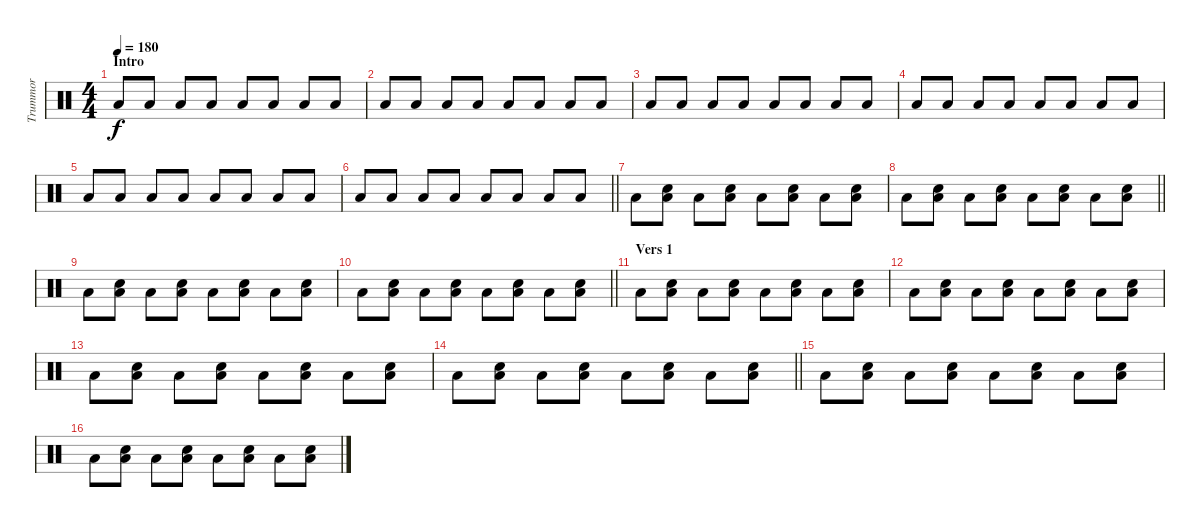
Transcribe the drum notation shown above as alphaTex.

\track ("Trummor" "Trummor") {instrument percussion}
\staff {score}
\articulation defaults
\ts (4 4)
\section ("" "Intro")
\tempo 180
\clef neutral
\ks c "Low Tom (hit)".8{dy f} "Low Tom (hit)".8 "Low Tom (hit)".8 "Low Tom (hit)".8 "Low Tom (hit)".8 "Low Tom (hit)".8 "Low Tom (hit)".8 "Low Tom (hit)".8
|
"Low Tom (hit)".8 "Low Tom (hit)".8 "Low Tom (hit)".8 "Low Tom (hit)".8 "Low Tom (hit)".8 "Low Tom (hit)".8 "Low Tom (hit)".8 "Low Tom (hit)".8 |
"Low Tom (hit)".8 "Low Tom (hit)".8 "Low Tom (hit)".8 "Low Tom (hit)".8 "Low Tom (hit)".8 "Low Tom (hit)".8 "Low Tom (hit)".8 "Low Tom (hit)".8 |
"Low Tom (hit)".8 "Low Tom (hit)".8 "Low Tom (hit)".8 "Low Tom (hit)".8 "Low Tom (hit)".8 "Low Tom (hit)".8 "Low Tom (hit)".8 "Low Tom (hit)".8 |
"Low Tom (hit)".8 "Low Tom (hit)".8 "Low Tom (hit)".8 "Low Tom (hit)".8 "Low Tom (hit)".8 "Low Tom (hit)".8 "Low Tom (hit)".8 "Low Tom (hit)".8 |
\barLineRight lightlight "Low Tom (hit)".8 "Low Tom (hit)".8 "Low Tom (hit)".8 "Low Tom (hit)".8 "Low Tom (hit)".8 "Low Tom (hit)".8 "Low Tom (hit)".8 "Low Tom (hit)".8
|
"Low Tom (hit)".8 ("Low Tom (hit)" "Snare (hit) 2").8 "Low Tom (hit)".8 ("Low Tom (hit)" "Snare (hit) 2").8 "Low Tom (hit)".8 ("Low Tom (hit)" "Snare (hit) 2").8 "Low Tom (hit)".8 ("Low Tom (hit)" "Snare (hit) 2").8 |
\barLineRight lightlight "Low Tom (hit)".8
("Low Tom (hit)" "Snare (hit) 2").8 "Low Tom (hit)".8 ("Low Tom (hit)" "Snare (hit) 2").8 "Low Tom (hit)".8 ("Low Tom (hit)" "Snare (hit) 2").8 "Low Tom (hit)".8 ("Low Tom (hit)" "Snare (hit) 2").8 |
"Low Tom (hit)".8 ("Low Tom (hit)" "Snare (hit) 2").8 "Low Tom (hit)".8 ("Low Tom (hit)" "Snare (hit) 2").8 "Low Tom (hit)".8 ("Low Tom (hit)" "Snare (hit) 2").8 "Low Tom (hit)".8 ("Low Tom (hit)" "Snare (hit) 2").8 |
\barLineRight lightlight "Low Tom (hit)".8
("Low Tom (hit)" "Snare (hit) 2").8 "Low Tom (hit)".8 ("Low Tom (hit)" "Snare (hit) 2").8 "Low Tom (hit)".8 ("Low Tom (hit)" "Snare (hit) 2").8 "Low Tom (hit)".8 ("Low Tom (hit)" "Snare (hit) 2").8 |
\section ("" "Vers 1")
"Low Tom (hit)".8 ("Low Tom (hit)" "Snare (hit) 2").8 "Low Tom (hit)".8 ("Low Tom (hit)" "Snare (hit) 2").8 "Low Tom (hit)".8 ("Low Tom (hit)" "Snare (hit) 2").8 "Low Tom (hit)".8 ("Low Tom (hit)" "Snare (hit) 2").8 |
"Low Tom (hit)".8 ("Low Tom (hit)" "Snare (hit) 2").8 "Low Tom (hit)".8 ("Low Tom (hit)" "Snare (hit) 2").8 "Low Tom (hit)".8 ("Low Tom (hit)" "Snare (hit) 2").8 "Low Tom (hit)".8 ("Low Tom (hit)" "Snare (hit) 2").8 |
"Low Tom (hit)".8 ("Low Tom (hit)" "Snare (hit) 2").8 "Low Tom (hit)".8 ("Low Tom (hit)" "Snare (hit) 2").8 "Low Tom (hit)".8 ("Low Tom (hit)" "Snare (hit) 2").8 "Low Tom (hit)".8 ("Low Tom (hit)" "Snare (hit) 2").8 |
\barLineRight lightlight "Low Tom (hit)".8
("Low Tom (hit)" "Snare (hit) 2").8 "Low Tom (hit)".8 ("Low Tom (hit)" "Snare (hit) 2").8 "Low Tom (hit)".8 ("Low Tom (hit)" "Snare (hit) 2").8 "Low Tom (hit)".8 ("Low Tom (hit)" "Snare (hit) 2").8 |
"Low Tom (hit)".8 ("Low Tom (hit)" "Snare (hit) 2").8 "Low Tom (hit)".8 ("Low Tom (hit)" "Snare (hit) 2").8 "Low Tom (hit)".8 ("Low Tom (hit)" "Snare (hit) 2").8 "Low Tom (hit)".8 ("Low Tom (hit)" "Snare (hit) 2").8 |
"Low Tom (hit)".8 ("Low Tom (hit)" "Snare (hit) 2").8 "Low Tom (hit)".8 ("Low Tom (hit)" "Snare (hit) 2").8 "Low Tom (hit)".8 ("Low Tom (hit)" "Snare (hit) 2").8 "Low Tom (hit)".8 ("Low Tom (hit)" "Snare (hit) 2").8
